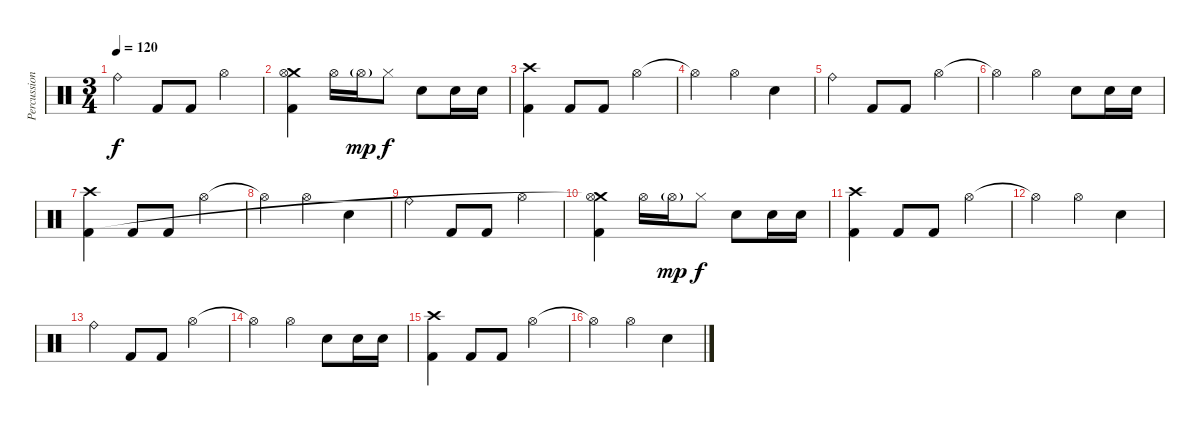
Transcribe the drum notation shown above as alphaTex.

\track ("Percussion" "Percussion") {instrument percussion}
\staff {score}
\articulation defaults
\ts (3 4)
\tempo 120
\clef neutral
\ks c "Ride (bell)".4{dy f} "Kick (hit) 2".8 "Kick (hit) 2".8 "Hi-Hat (open)".4
|
("Crash medium (hit)" "Hi-Hat (open)"{t} "Kick (hit) 2").4 "Hi-Hat (open)".16 "Hi-Hat (open)"{g}.16{dy mp} "Hi-Hat (closed)".8{dy f} "Electric Snare (hit)".8 "Electric Snare (hit)".16 "Electric Snare (hit)".16 |
("Crash high (hit)" "Kick (hit) 2").4 "Kick (hit) 2".8 "Kick (hit) 2".8 "Hi-Hat (open)".4 |
"Hi-Hat (open)"{t}.4 "Hi-Hat (open)".4 "Electric Snare (hit)".4 |
"Ride (bell)".4 "Kick (hit) 2".8 "Kick (hit) 2".8 "Hi-Hat (open)".4 |
"Hi-Hat (open)"{t}.4 "Hi-Hat (open)".4 "Electric Snare (hit)".8 "Electric Snare (hit)".16 "Electric Snare (hit)".16 |
("Crash high (hit)" "Kick (hit) 2").4 "Kick (hit) 2".8 "Kick (hit) 2".8 "Hi-Hat (open)".4 |
"Hi-Hat (open)"{t}.4 "Hi-Hat (open)".4 "Electric Snare (hit)".4 |
"Ride (bell)".4 "Kick (hit) 2".8 "Kick (hit) 2".8 "Hi-Hat (open)".4 |
("Crash medium (hit)" "Hi-Hat (open)"{t} "Kick (hit) 2").4 "Hi-Hat (open)".16 "Hi-Hat (open)"{g}.16{dy mp} "Hi-Hat (closed)".8{dy f} "Electric Snare (hit)".8 "Electric Snare (hit)".16 "Electric Snare (hit)".16 |
("Crash high (hit)" "Kick (hit) 2").4 "Kick (hit) 2".8 "Kick (hit) 2".8 "Hi-Hat (open)".4 |
"Hi-Hat (open)"{t}.4 "Hi-Hat (open)".4 "Electric Snare (hit)".4 |
"Ride (bell)".4 "Kick (hit) 2".8 "Kick (hit) 2".8 "Hi-Hat (open)".4 |
"Hi-Hat (open)"{t}.4 "Hi-Hat (open)".4 "Electric Snare (hit)".8 "Electric Snare (hit)".16 "Electric Snare (hit)".16 |
("Crash high (hit)" "Kick (hit) 2").4 "Kick (hit) 2".8 "Kick (hit) 2".8 "Hi-Hat (open)".4 |
"Hi-Hat (open)"{t}.4 "Hi-Hat (open)".4 "Electric Snare (hit)".4
